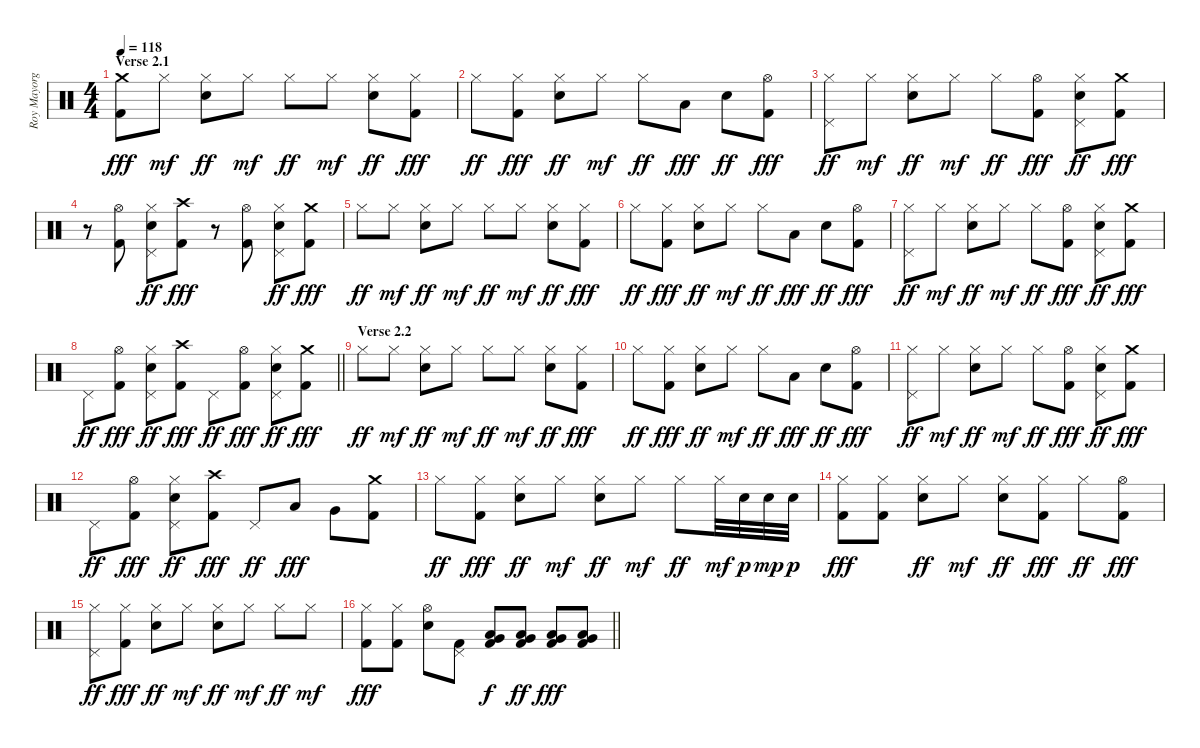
\track ("Roy Mayorga" "Roy Mayorg") {instrument percussion}
\staff {score}
\articulation defaults
\ts (4 4)
\section ("" "Verse 2.1")
\tempo 118
\clef neutral
\ks c
("Crash medium (hit)" "Kick (hit) 2").8{dy fff} "Hi-Hat (closed)".8{dy mf} ("Hi-Hat (closed)" "Electric Snare (hit)").8{dy ff} "Hi-Hat (closed)".8{dy mf} "Hi-Hat (closed)".8{dy ff} "Hi-Hat (closed)".8{dy mf} ("Hi-Hat (closed)" "Electric Snare (hit)").8{dy ff} ("Hi-Hat (closed)" "Kick (hit) 2").8{dy fff} |
"Hi-Hat (closed)".8{dy ff} ("Hi-Hat (closed)" "Kick (hit) 2").8{dy fff} ("Hi-Hat (closed)" "Electric Snare (hit)").8{dy ff} "Hi-Hat (closed)".8{dy mf} "Hi-Hat (closed)".8{dy ff} "Low Tom (hit)".8{dy fff} "Electric Snare (hit)".8{dy ff} ("Hi-Hat (open)" "Kick (hit) 2").8{dy fff} |
("Hi-Hat (closed)" "Pedal Hi-Hat (hit)").8{dy ff} "Hi-Hat (closed)".8{dy mf} ("Hi-Hat (closed)" "Electric Snare (hit)").8{dy ff} "Hi-Hat (closed)".8{dy mf} "Hi-Hat (closed)".8{dy ff} ("Hi-Hat (open)" "Kick (hit) 2").8{dy fff} ("Hi-Hat (closed)" "Electric Snare (hit)" "Pedal Hi-Hat (hit)").8{dy ff} ("Crash medium (hit)" "Kick (hit) 2").8{dy fff} |
r.8 ("Hi-Hat (open)" "Kick (hit) 2").8 ("Hi-Hat (closed)" "Electric Snare (hit)" "Pedal Hi-Hat (hit)").8{dy ff} ("Crash high (hit)" "Kick (hit) 2").8{dy fff} r.8 ("Hi-Hat (open)" "Kick (hit) 2").8 ("Hi-Hat (closed)" "Electric Snare (hit)" "Pedal Hi-Hat (hit)").8{dy ff} ("Crash medium (hit)" "Kick (hit) 2").8{dy fff} |
"Hi-Hat (closed)".8{dy ff} "Hi-Hat (closed)".8{dy mf} ("Hi-Hat (closed)" "Electric Snare (hit)").8{dy ff} "Hi-Hat (closed)".8{dy mf} "Hi-Hat (closed)".8{dy ff} "Hi-Hat (closed)".8{dy mf} ("Hi-Hat (closed)" "Electric Snare (hit)").8{dy ff} ("Hi-Hat (closed)" "Kick (hit) 2").8{dy fff} |
"Hi-Hat (closed)".8{dy ff} ("Hi-Hat (closed)" "Kick (hit) 2").8{dy fff} ("Hi-Hat (closed)" "Electric Snare (hit)").8{dy ff} "Hi-Hat (closed)".8{dy mf} "Hi-Hat (closed)".8{dy ff} "Low Tom (hit)".8{dy fff} "Electric Snare (hit)".8{dy ff} ("Hi-Hat (open)" "Kick (hit) 2").8{dy fff} |
("Hi-Hat (closed)" "Pedal Hi-Hat (hit)").8{dy ff} "Hi-Hat (closed)".8{dy mf} ("Hi-Hat (closed)" "Electric Snare (hit)").8{dy ff} "Hi-Hat (closed)".8{dy mf} "Hi-Hat (closed)".8{dy ff} ("Hi-Hat (open)" "Kick (hit) 2").8{dy fff} ("Hi-Hat (closed)" "Electric Snare (hit)" "Pedal Hi-Hat (hit)").8{dy ff} ("Crash medium (hit)" "Kick (hit) 2").8{dy fff} |
\barLineRight lightlight "Pedal Hi-Hat (hit)".8{dy ff}
("Hi-Hat (open)" "Kick (hit) 2").8{dy fff} ("Hi-Hat (closed)" "Electric Snare (hit)" "Pedal Hi-Hat (hit)").8{dy ff} ("Crash high (hit)" "Kick (hit) 2").8{dy fff} "Pedal Hi-Hat (hit)".8{dy ff} ("Hi-Hat (open)" "Kick (hit) 2").8{dy fff} ("Hi-Hat (closed)" "Electric Snare (hit)" "Pedal Hi-Hat (hit)").8{dy ff} ("Crash medium (hit)" "Kick (hit) 2").8{dy fff} |
\section ("" "Verse 2.2")
"Hi-Hat (closed)".8{dy ff} "Hi-Hat (closed)".8{dy mf} ("Hi-Hat (closed)" "Electric Snare (hit)").8{dy ff} "Hi-Hat (closed)".8{dy mf} "Hi-Hat (closed)".8{dy ff} "Hi-Hat (closed)".8{dy mf} ("Hi-Hat (closed)" "Electric Snare (hit)").8{dy ff} ("Hi-Hat (closed)" "Kick (hit) 2").8{dy fff} |
"Hi-Hat (closed)".8{dy ff} ("Hi-Hat (closed)" "Kick (hit) 2").8{dy fff} ("Hi-Hat (closed)" "Electric Snare (hit)").8{dy ff} "Hi-Hat (closed)".8{dy mf} "Hi-Hat (closed)".8{dy ff} "Low Tom (hit)".8{dy fff} "Electric Snare (hit)".8{dy ff} ("Hi-Hat (open)" "Kick (hit) 2").8{dy fff} |
("Hi-Hat (closed)" "Pedal Hi-Hat (hit)").8{dy ff} "Hi-Hat (closed)".8{dy mf} ("Hi-Hat (closed)" "Electric Snare (hit)").8{dy ff} "Hi-Hat (closed)".8{dy mf} "Hi-Hat (closed)".8{dy ff} ("Hi-Hat (open)" "Kick (hit) 2").8{dy fff} ("Hi-Hat (closed)" "Electric Snare (hit)" "Pedal Hi-Hat (hit)").8{dy ff} ("Crash medium (hit)" "Kick (hit) 2").8{dy fff} |
"Pedal Hi-Hat (hit)".8{dy ff} ("Hi-Hat (open)" "Kick (hit) 2").8{dy fff} ("Hi-Hat (closed)" "Electric Snare (hit)" "Pedal Hi-Hat (hit)").8{dy ff} ("Crash high (hit)" "Kick (hit) 2").8{dy fff} "Pedal Hi-Hat (hit)".8{dy ff} "Low Tom (hit)".8{dy fff} "Very Low Tom (hit)".8 ("Crash medium (hit)" "Kick (hit) 2").8 |
"Hi-Hat (closed)".8{dy ff} ("Hi-Hat (closed)" "Kick (hit) 2").8{dy fff} ("Hi-Hat (closed)" "Electric Snare (hit)").8{dy ff} "Hi-Hat (closed)".8{dy mf} ("Hi-Hat (closed)" "Electric Snare (hit)").8{dy ff} "Hi-Hat (closed)".8{dy mf} "Hi-Hat (closed)".8{dy ff} "Hi-Hat (closed)".32{dy mf} "Electric Snare (hit)".32{dy p} "Electric Snare (hit)".32{dy mp} "Electric Snare (hit)".32{dy p} |
("Hi-Hat (closed)" "Kick (hit) 2").8{dy fff} ("Hi-Hat (closed)" "Kick (hit) 2").8 ("Hi-Hat (closed)" "Electric Snare (hit)").8{dy ff} "Hi-Hat (closed)".8{dy mf} ("Hi-Hat (closed)" "Electric Snare (hit)").8{dy ff} ("Hi-Hat (closed)" "Kick (hit) 2").8{dy fff} "Hi-Hat (closed)".8{dy ff} ("Hi-Hat (open)" "Kick (hit) 2").8{dy fff} |
("Hi-Hat (closed)" "Pedal Hi-Hat (hit)").8{dy ff} ("Hi-Hat (closed)" "Kick (hit) 2").8{dy fff} ("Hi-Hat (closed)" "Electric Snare (hit)").8{dy ff} "Hi-Hat (closed)".8{dy mf} ("Hi-Hat (closed)" "Electric Snare (hit)").8{dy ff} "Hi-Hat (closed)".8{dy mf} "Hi-Hat (closed)".8{dy ff} "Hi-Hat (closed)".8{dy mf} |
\barLineRight lightlight
("Hi-Hat (closed)" "Kick (hit) 2").8{dy fff} ("Hi-Hat (closed)" "Kick (hit) 2").8 ("Hi-Hat (open)" "Electric Snare (hit)").8 ("Pedal Hi-Hat (hit)" "Kick (hit) 2").8 ("Very Low Tom (hit)" "Low Floor Tom (hit)" "Kick (hit) 2").8{dy f} ("Very Low Tom (hit)" "Low Floor Tom (hit)" "Kick (hit) 2").8{dy ff} ("Very Low Tom (hit)" "Low Floor Tom (hit)" "Kick (hit) 2").8{dy fff} ("Very Low Tom (hit)" "Low Floor Tom (hit)" "Kick (hit) 2").8
